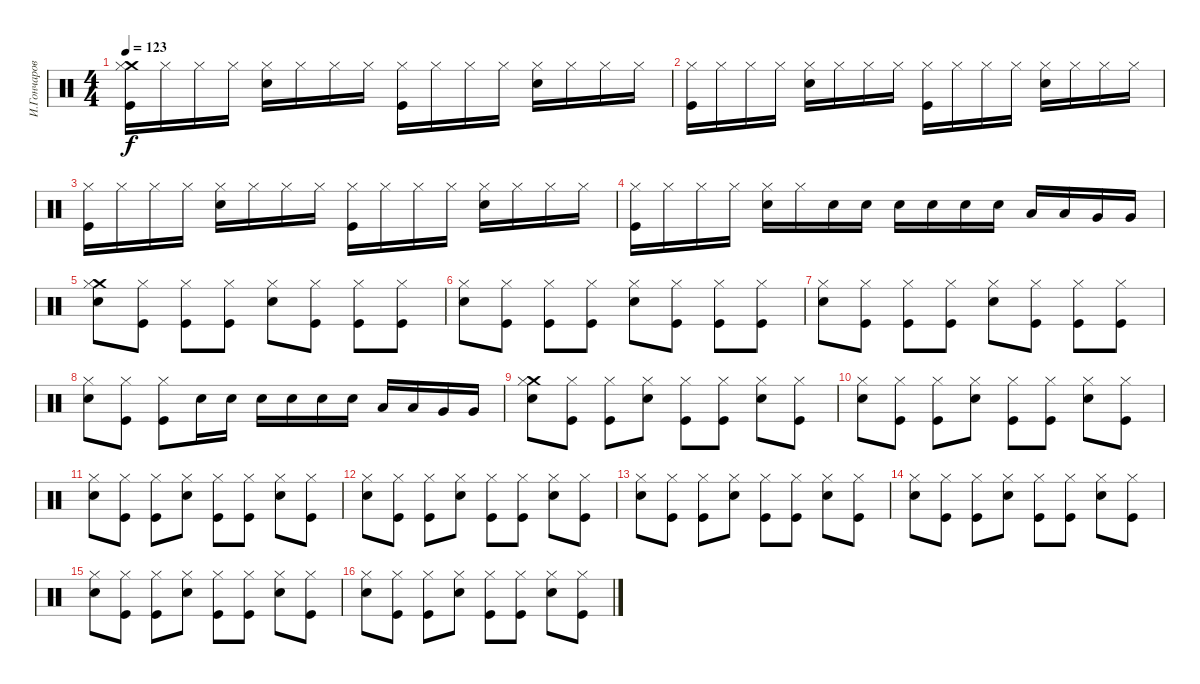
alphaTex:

\track ("И.Гончаров" "И.Гончаров") {instrument percussion}
\staff {score}
\articulation defaults
\ts (4 4)
\tempo 123
\clef neutral
\ks c
("Crash medium (hit)" "Hi-Hat (closed)" "Kick (hit)").16{dy f} "Hi-Hat (closed)".16 "Hi-Hat (closed)".16 "Hi-Hat (closed)".16 ("Hi-Hat (closed)" "Snare (hit) 2").16 "Hi-Hat (closed)".16 "Hi-Hat (closed)".16 "Hi-Hat (closed)".16 ("Hi-Hat (closed)" "Kick (hit)").16 "Hi-Hat (closed)".16 "Hi-Hat (closed)".16 "Hi-Hat (closed)".16 ("Hi-Hat (closed)" "Snare (hit) 2").16 "Hi-Hat (closed)".16 "Hi-Hat (closed)".16 "Hi-Hat (closed)".16 |
("Hi-Hat (closed)" "Kick (hit)").16 "Hi-Hat (closed)".16 "Hi-Hat (closed)".16 "Hi-Hat (closed)".16 ("Hi-Hat (closed)" "Snare (hit) 2").16 "Hi-Hat (closed)".16 "Hi-Hat (closed)".16 "Hi-Hat (closed)".16 ("Hi-Hat (closed)" "Kick (hit)").16 "Hi-Hat (closed)".16 "Hi-Hat (closed)".16 "Hi-Hat (closed)".16 ("Hi-Hat (closed)" "Snare (hit) 2").16 "Hi-Hat (closed)".16 "Hi-Hat (closed)".16 "Hi-Hat (closed)".16 |
("Hi-Hat (closed)" "Kick (hit)").16 "Hi-Hat (closed)".16 "Hi-Hat (closed)".16 "Hi-Hat (closed)".16 ("Hi-Hat (closed)" "Snare (hit) 2").16 "Hi-Hat (closed)".16 "Hi-Hat (closed)".16 "Hi-Hat (closed)".16 ("Hi-Hat (closed)" "Kick (hit)").16 "Hi-Hat (closed)".16 "Hi-Hat (closed)".16 "Hi-Hat (closed)".16 ("Hi-Hat (closed)" "Snare (hit) 2").16 "Hi-Hat (closed)".16 "Hi-Hat (closed)".16 "Hi-Hat (closed)".16 |
("Hi-Hat (closed)" "Kick (hit)").16 "Hi-Hat (closed)".16 "Hi-Hat (closed)".16 "Hi-Hat (closed)".16 ("Hi-Hat (closed)" "Snare (hit) 2").16 "Hi-Hat (closed)".16 "Snare (hit) 2".16 "Snare (hit) 2".16 "Snare (hit) 2".16 "Snare (hit) 2".16 "Snare (hit) 2".16 "Snare (hit) 2".16 "Low Tom (hit)".16 "Low Tom (hit)".16 "Very Low Tom (hit)".16 "Very Low Tom (hit)".16 |
("Crash medium (hit)" "Hi-Hat (closed)" "Snare (hit) 2").8 ("Hi-Hat (closed)" "Kick (hit)").8 ("Hi-Hat (closed)" "Kick (hit)").8 ("Hi-Hat (closed)" "Kick (hit)").8 ("Hi-Hat (closed)" "Snare (hit) 2").8 ("Hi-Hat (closed)" "Kick (hit)").8 ("Hi-Hat (closed)" "Kick (hit)").8 ("Hi-Hat (closed)" "Kick (hit)").8 |
("Hi-Hat (closed)" "Snare (hit) 2").8 ("Hi-Hat (closed)" "Kick (hit)").8 ("Hi-Hat (closed)" "Kick (hit)").8 ("Hi-Hat (closed)" "Kick (hit)").8 ("Hi-Hat (closed)" "Snare (hit) 2").8 ("Hi-Hat (closed)" "Kick (hit)").8 ("Hi-Hat (closed)" "Kick (hit)").8 ("Hi-Hat (closed)" "Kick (hit)").8 |
("Hi-Hat (closed)" "Snare (hit) 2").8 ("Hi-Hat (closed)" "Kick (hit)").8 ("Hi-Hat (closed)" "Kick (hit)").8 ("Hi-Hat (closed)" "Kick (hit)").8 ("Hi-Hat (closed)" "Snare (hit) 2").8 ("Hi-Hat (closed)" "Kick (hit)").8 ("Hi-Hat (closed)" "Kick (hit)").8 ("Hi-Hat (closed)" "Kick (hit)").8 |
("Hi-Hat (closed)" "Snare (hit) 2").8 ("Hi-Hat (closed)" "Kick (hit)").8 ("Hi-Hat (closed)" "Kick (hit)").8 "Snare (hit) 2".16 "Snare (hit) 2".16 "Snare (hit) 2".16 "Snare (hit) 2".16 "Snare (hit) 2".16 "Snare (hit) 2".16 "Low Tom (hit)".16 "Low Tom (hit)".16 "Very Low Tom (hit)".16 "Very Low Tom (hit)".16 |
("Crash medium (hit)" "Hi-Hat (closed)" "Snare (hit) 2").8 ("Hi-Hat (closed)" "Kick (hit)").8 ("Hi-Hat (closed)" "Kick (hit)").8 ("Hi-Hat (closed)" "Snare (hit) 2").8 ("Hi-Hat (closed)" "Kick (hit)").8 ("Hi-Hat (closed)" "Kick (hit)").8 ("Hi-Hat (closed)" "Snare (hit) 2").8 ("Hi-Hat (closed)" "Kick (hit)").8 |
("Hi-Hat (closed)" "Snare (hit) 2").8 ("Hi-Hat (closed)" "Kick (hit)").8 ("Hi-Hat (closed)" "Kick (hit)").8 ("Hi-Hat (closed)" "Snare (hit) 2").8 ("Hi-Hat (closed)" "Kick (hit)").8 ("Hi-Hat (closed)" "Kick (hit)").8 ("Hi-Hat (closed)" "Snare (hit) 2").8 ("Hi-Hat (closed)" "Kick (hit)").8 |
("Hi-Hat (closed)" "Snare (hit) 2").8 ("Hi-Hat (closed)" "Kick (hit)").8 ("Hi-Hat (closed)" "Kick (hit)").8 ("Hi-Hat (closed)" "Snare (hit) 2").8 ("Hi-Hat (closed)" "Kick (hit)").8 ("Hi-Hat (closed)" "Kick (hit)").8 ("Hi-Hat (closed)" "Snare (hit) 2").8 ("Hi-Hat (closed)" "Kick (hit)").8 |
("Hi-Hat (closed)" "Snare (hit) 2").8 ("Hi-Hat (closed)" "Kick (hit)").8 ("Hi-Hat (closed)" "Kick (hit)").8 ("Hi-Hat (closed)" "Snare (hit) 2").8 ("Hi-Hat (closed)" "Kick (hit)").8 ("Hi-Hat (closed)" "Kick (hit)").8 ("Hi-Hat (closed)" "Snare (hit) 2").8 ("Hi-Hat (closed)" "Kick (hit)").8 |
("Hi-Hat (closed)" "Snare (hit) 2").8 ("Hi-Hat (closed)" "Kick (hit)").8 ("Hi-Hat (closed)" "Kick (hit)").8 ("Hi-Hat (closed)" "Snare (hit) 2").8 ("Hi-Hat (closed)" "Kick (hit)").8 ("Hi-Hat (closed)" "Kick (hit)").8 ("Hi-Hat (closed)" "Snare (hit) 2").8 ("Hi-Hat (closed)" "Kick (hit)").8 |
("Hi-Hat (closed)" "Snare (hit) 2").8 ("Hi-Hat (closed)" "Kick (hit)").8 ("Hi-Hat (closed)" "Kick (hit)").8 ("Hi-Hat (closed)" "Snare (hit) 2").8 ("Hi-Hat (closed)" "Kick (hit)").8 ("Hi-Hat (closed)" "Kick (hit)").8 ("Hi-Hat (closed)" "Snare (hit) 2").8 ("Hi-Hat (closed)" "Kick (hit)").8 |
("Hi-Hat (closed)" "Snare (hit) 2").8 ("Hi-Hat (closed)" "Kick (hit)").8 ("Hi-Hat (closed)" "Kick (hit)").8 ("Hi-Hat (closed)" "Snare (hit) 2").8 ("Hi-Hat (closed)" "Kick (hit)").8 ("Hi-Hat (closed)" "Kick (hit)").8 ("Hi-Hat (closed)" "Snare (hit) 2").8 ("Hi-Hat (closed)" "Kick (hit)").8 |
("Hi-Hat (closed)" "Snare (hit) 2").8 ("Hi-Hat (closed)" "Kick (hit)").8 ("Hi-Hat (closed)" "Kick (hit)").8 ("Hi-Hat (closed)" "Snare (hit) 2").8 ("Hi-Hat (closed)" "Kick (hit)").8 ("Hi-Hat (closed)" "Kick (hit)").8 ("Hi-Hat (closed)" "Snare (hit) 2").8 ("Hi-Hat (closed)" "Kick (hit)").8
